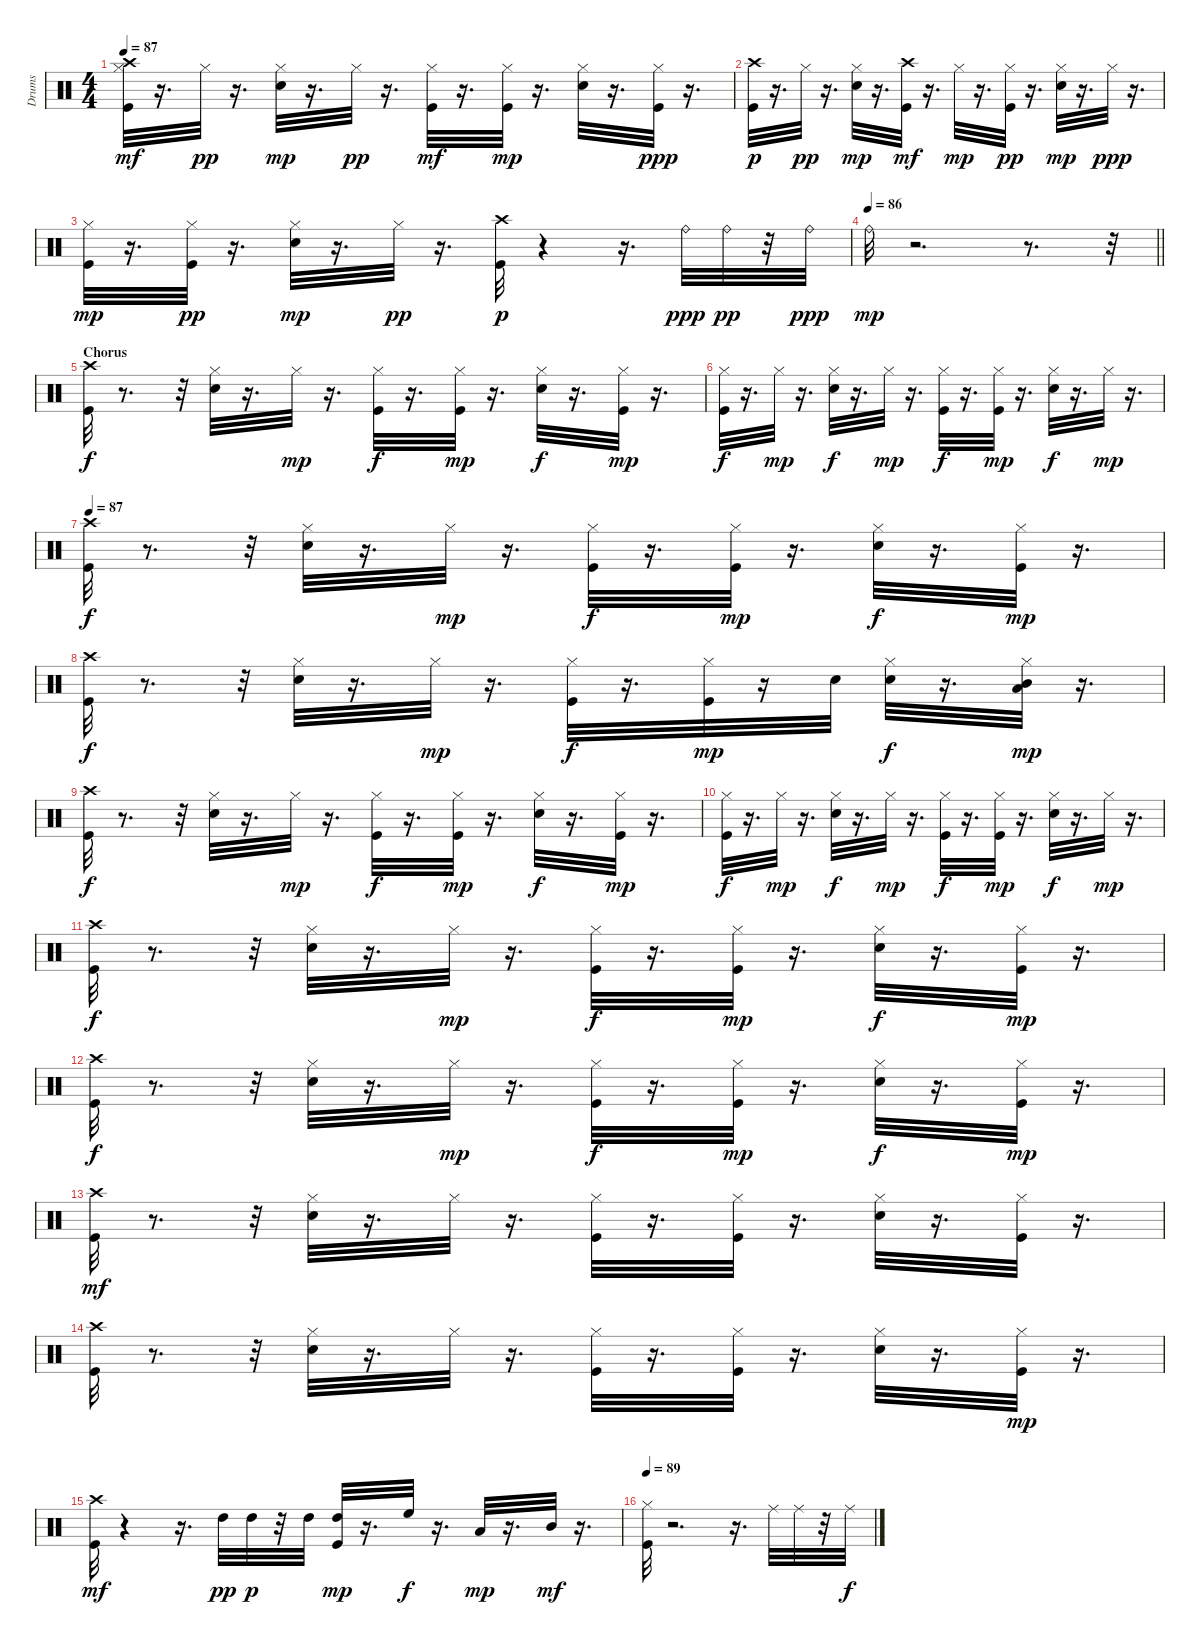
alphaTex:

\track ("Drums" "Drums") {instrument percussion}
\staff {score}
\articulation defaults
\ts (4 4)
\tempo 87
\clef neutral
\ks c
("Crash high (hit)" "Hi-Hat (closed)" "Kick (hit)").32{dy mf} r.16{d} "Hi-Hat (closed)".32{dy pp} r.16{d} ("Electric Snare (hit)" "Hi-Hat (closed)").32{dy mp} r.16{d} "Hi-Hat (closed)".32{dy pp} r.16{d} ("Hi-Hat (closed)" "Kick (hit)").32{dy mf} r.16{d} ("Hi-Hat (closed)" "Kick (hit)").32{dy mp} r.16{d} ("Electric Snare (hit)" "Hi-Hat (closed)").32 r.16{d} ("Hi-Hat (closed)" "Kick (hit)").32{dy ppp} r.16{d} |
("Kick (hit)" "Crash high (hit)").32{dy p} r.16{d} "Hi-Hat (closed)".32{dy pp} r.16{d} ("Electric Snare (hit)" "Hi-Hat (closed)").32{dy mp} r.16{d} ("Crash high (hit)" "Kick (hit)").32{dy mf} r.16{d} "Hi-Hat (closed)".32{dy mp} r.16{d} ("Kick (hit)" "Hi-Hat (closed)").32{dy pp} r.16{d} ("Electric Snare (hit)" "Hi-Hat (closed)").32{dy mp} r.16{d} "Hi-Hat (closed)".32{dy ppp} r.16{d} |
("Kick (hit)" "Hi-Hat (closed)").32{dy mp} r.16{d} ("Kick (hit)" "Hi-Hat (closed)").32{dy pp} r.16{d} ("Electric Snare (hit)" "Hi-Hat (closed)").32{dy mp} r.16{d} "Hi-Hat (closed)".32{dy pp} r.16{d} ("Kick (hit)" "Crash high (hit)").32{dy p} r.4 r.16{d} "Ride (bell)".32{dy ppp} "Ride (bell)".32{dy pp} r.32 "Ride (bell)".32{dy ppp} |
\tempo 86
\barLineRight lightlight "Ride (bell)".32{dy mp}
r.2{d} r.8{d} r.32 |
\section ("" "Chorus")
("Kick (hit)" "Crash high (hit)").32{dy f} r.8{d} r.32 ("Hi-Hat (closed)" "Electric Snare (hit)").32 r.16{d} "Hi-Hat (closed)".32{dy mp} r.16{d} ("Kick (hit)" "Hi-Hat (closed)").32{dy f} r.16{d} ("Hi-Hat (closed)" "Kick (hit)").32{dy mp} r.16{d} ("Hi-Hat (closed)" "Electric Snare (hit)").32{dy f} r.16{d} ("Hi-Hat (closed)" "Kick (hit)").32{dy mp} r.16{d} |
("Kick (hit)" "Hi-Hat (closed)").32{dy f} r.16{d} "Hi-Hat (closed)".32{dy mp} r.16{d} ("Electric Snare (hit)" "Hi-Hat (closed)").32{dy f} r.16{d} "Hi-Hat (closed)".32{dy mp} r.16{d} ("Hi-Hat (closed)" "Kick (hit)").32{dy f} r.16{d} ("Hi-Hat (closed)" "Kick (hit)").32{dy mp} r.16{d} ("Hi-Hat (closed)" "Electric Snare (hit)").32{dy f} r.16{d} "Hi-Hat (closed)".32{dy mp} r.16{d} |
\tempo 87
("Kick (hit)" "Crash high (hit)").32{dy f} r.8{d} r.32 ("Electric Snare (hit)" "Hi-Hat (closed)").32 r.16{d} "Hi-Hat (closed)".32{dy mp} r.16{d} ("Hi-Hat (closed)" "Kick (hit)").32{dy f} r.16{d} ("Hi-Hat (closed)" "Kick (hit)").32{dy mp} r.16{d} ("Electric Snare (hit)" "Hi-Hat (closed)").32{dy f} r.16{d} ("Hi-Hat (closed)" "Kick (hit)").32{dy mp} r.16{d} |
("Kick (hit)" "Crash high (hit)").32{dy f} r.8{d} r.32 ("Electric Snare (hit)" "Hi-Hat (closed)").32 r.16{d} "Hi-Hat (closed)".32{dy mp} r.16{d} ("Hi-Hat (closed)" "Kick (hit)").32{dy f} r.16{d} ("Hi-Hat (closed)" "Kick (hit)").32{dy mp} r.16 "Electric Snare (hit)".32 ("Electric Snare (hit)" "Hi-Hat (closed)").32{dy f} r.16{d} ("Low Tom (hit)" "Hi-Hat (closed)" "Mid Tom (hit)").32{dy mp} r.16{d} |
("Kick (hit)" "Crash high (hit)").32{dy f} r.8{d} r.32 ("Hi-Hat (closed)" "Electric Snare (hit)").32 r.16{d} "Hi-Hat (closed)".32{dy mp} r.16{d} ("Kick (hit)" "Hi-Hat (closed)").32{dy f} r.16{d} ("Kick (hit)" "Hi-Hat (closed)").32{dy mp} r.16{d} ("Hi-Hat (closed)" "Electric Snare (hit)").32{dy f} r.16{d} ("Hi-Hat (closed)" "Kick (hit)").32{dy mp} r.16{d} |
("Hi-Hat (closed)" "Kick (hit)").32{dy f} r.16{d} "Hi-Hat (closed)".32{dy mp} r.16{d} ("Electric Snare (hit)" "Hi-Hat (closed)").32{dy f} r.16{d} "Hi-Hat (closed)".32{dy mp} r.16{d} ("Hi-Hat (closed)" "Kick (hit)").32{dy f} r.16{d} ("Hi-Hat (closed)" "Kick (hit)").32{dy mp} r.16{d} ("Electric Snare (hit)" "Hi-Hat (closed)").32{dy f} r.16{d} "Hi-Hat (closed)".32{dy mp} r.16{d} |
("Kick (hit)" "Crash high (hit)").32{dy f} r.8{d} r.32 ("Electric Snare (hit)" "Hi-Hat (closed)").32 r.16{d} "Hi-Hat (closed)".32{dy mp} r.16{d} ("Hi-Hat (closed)" "Kick (hit)").32{dy f} r.16{d} ("Hi-Hat (closed)" "Kick (hit)").32{dy mp} r.16{d} ("Electric Snare (hit)" "Hi-Hat (closed)").32{dy f} r.16{d} ("Hi-Hat (closed)" "Kick (hit)").32{dy mp} r.16{d} |
("Kick (hit)" "Crash high (hit)").32{dy f} r.8{d} r.32 ("Electric Snare (hit)" "Hi-Hat (closed)").32 r.16{d} "Hi-Hat (closed)".32{dy mp} r.16{d} ("Hi-Hat (closed)" "Kick (hit)").32{dy f} r.16{d} ("Hi-Hat (closed)" "Kick (hit)").32{dy mp} r.16{d} ("Electric Snare (hit)" "Hi-Hat (closed)").32{dy f} r.16{d} ("Hi-Hat (closed)" "Kick (hit)").32{dy mp} r.16{d} |
("Kick (hit)" "Crash high (hit)").32{dy mf} r.8{d} r.32 ("Electric Snare (hit)" "Hi-Hat (closed)").32 r.16{d} "Hi-Hat (closed)".32 r.16{d} ("Hi-Hat (closed)" "Kick (hit)").32 r.16{d} ("Hi-Hat (closed)" "Kick (hit)").32 r.16{d} ("Electric Snare (hit)" "Hi-Hat (closed)").32 r.16{d} ("Hi-Hat (closed)" "Kick (hit)").32 r.16{d} |
("Kick (hit)" "Crash high (hit)").32 r.8{d} r.32 ("Electric Snare (hit)" "Hi-Hat (closed)").32 r.16{d} "Hi-Hat (closed)".32 r.16{d} ("Hi-Hat (closed)" "Kick (hit)").32 r.16{d} ("Hi-Hat (closed)" "Kick (hit)").32 r.16{d} ("Electric Snare (hit)" "Hi-Hat (closed)").32 r.16{d} ("Hi-Hat (closed)" "Kick (hit)").32{dy mp} r.16{d} |
("Crash high (hit)" "Kick (hit)").32{dy mf} r.4 r.16{d} "High Tom (hit)".32{dy pp} "High Tom (hit)".32{dy p} r.32 "High Tom (hit)".32 ("Kick (hit)" "High Tom (hit)").32{dy mp} r.16{d} "High Floor Tom (hit)".32{dy f} r.16{d} "Low Tom (hit)".32{dy mp} r.16{d} "Mid Tom (hit)".32{dy mf} r.16{d} |
\tempo 89
("Hi-Hat (closed)" "Kick (hit)").32 r.2{d} r.16{d} "Ride (middle)".32 "Ride (middle)".32 r.32 "Ride (middle)".32{dy f}
